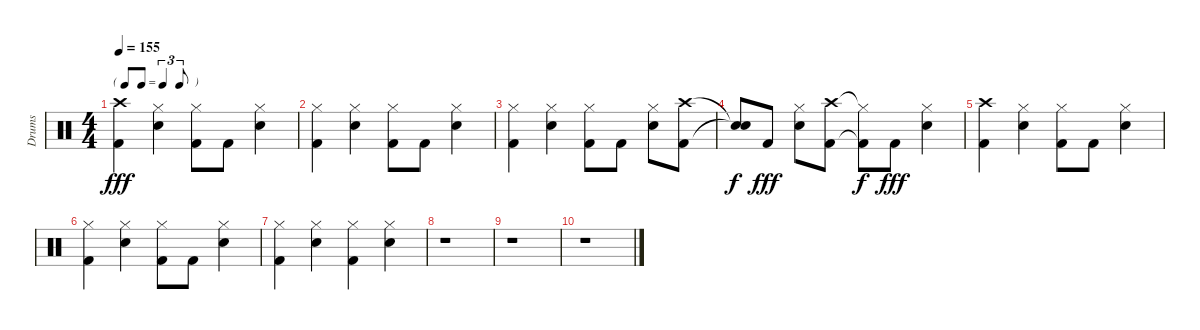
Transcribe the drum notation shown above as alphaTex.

\track ("Drums" "Drums") {instrument percussion}
\staff {score}
\articulation defaults
\ts (4 4)
\tf triplet8th
\tempo 155
\clef neutral
\ks c
("Crash high (hit)" "Kick (hit) 2").4{dy fff} ("Hi-Hat (closed)" "Snare (hit) 2").4 ("Hi-Hat (closed)" "Kick (hit) 2").8 "Kick (hit) 2".8 ("Hi-Hat (closed)" "Snare (hit) 2").4 |
("Hi-Hat (closed)" "Kick (hit) 2").4 ("Hi-Hat (closed)" "Snare (hit) 2").4 ("Hi-Hat (closed)" "Kick (hit) 2").8 "Kick (hit) 2".8 ("Hi-Hat (closed)" "Snare (hit) 2").4 |
("Hi-Hat (closed)" "Kick (hit) 2").4 ("Hi-Hat (closed)" "Snare (hit) 2").4 ("Hi-Hat (closed)" "Kick (hit) 2").8 "Kick (hit) 2".8 ("Hi-Hat (closed)" "Snare (hit) 2").8 ("Crash high (hit)" "Kick (hit) 2").8 |
("Snare (hit)"{t} "Snare (hit)"{t}).8{dy f} "Kick (hit) 2".8{dy fff} ("Hi-Hat (closed)" "Snare (hit) 2").8 ("Crash high (hit)" "Kick (hit) 2").8 ("Hi-Hat (closed)"{t} "Kick (hit) 2"{t}).8{dy f} "Kick (hit) 2".8{dy fff} ("Hi-Hat (closed)" "Snare (hit) 2").4 |
("Crash high (hit)" "Kick (hit) 2").4 ("Hi-Hat (closed)" "Snare (hit) 2").4 ("Hi-Hat (closed)" "Kick (hit) 2").8 "Kick (hit) 2".8 ("Hi-Hat (closed)" "Snare (hit) 2").4 |
("Hi-Hat (closed)" "Kick (hit) 2").4 ("Hi-Hat (closed)" "Snare (hit) 2").4 ("Hi-Hat (closed)" "Kick (hit) 2").8 "Kick (hit) 2".8 ("Hi-Hat (closed)" "Snare (hit) 2").4 |
("Hi-Hat (closed)" "Kick (hit) 2").4 ("Hi-Hat (closed)" "Snare (hit) 2").4 ("Hi-Hat (closed)" "Kick (hit) 2").4 ("Hi-Hat (closed)" "Snare (hit) 2").4 |
r.1 |
r.1 |
r.1
